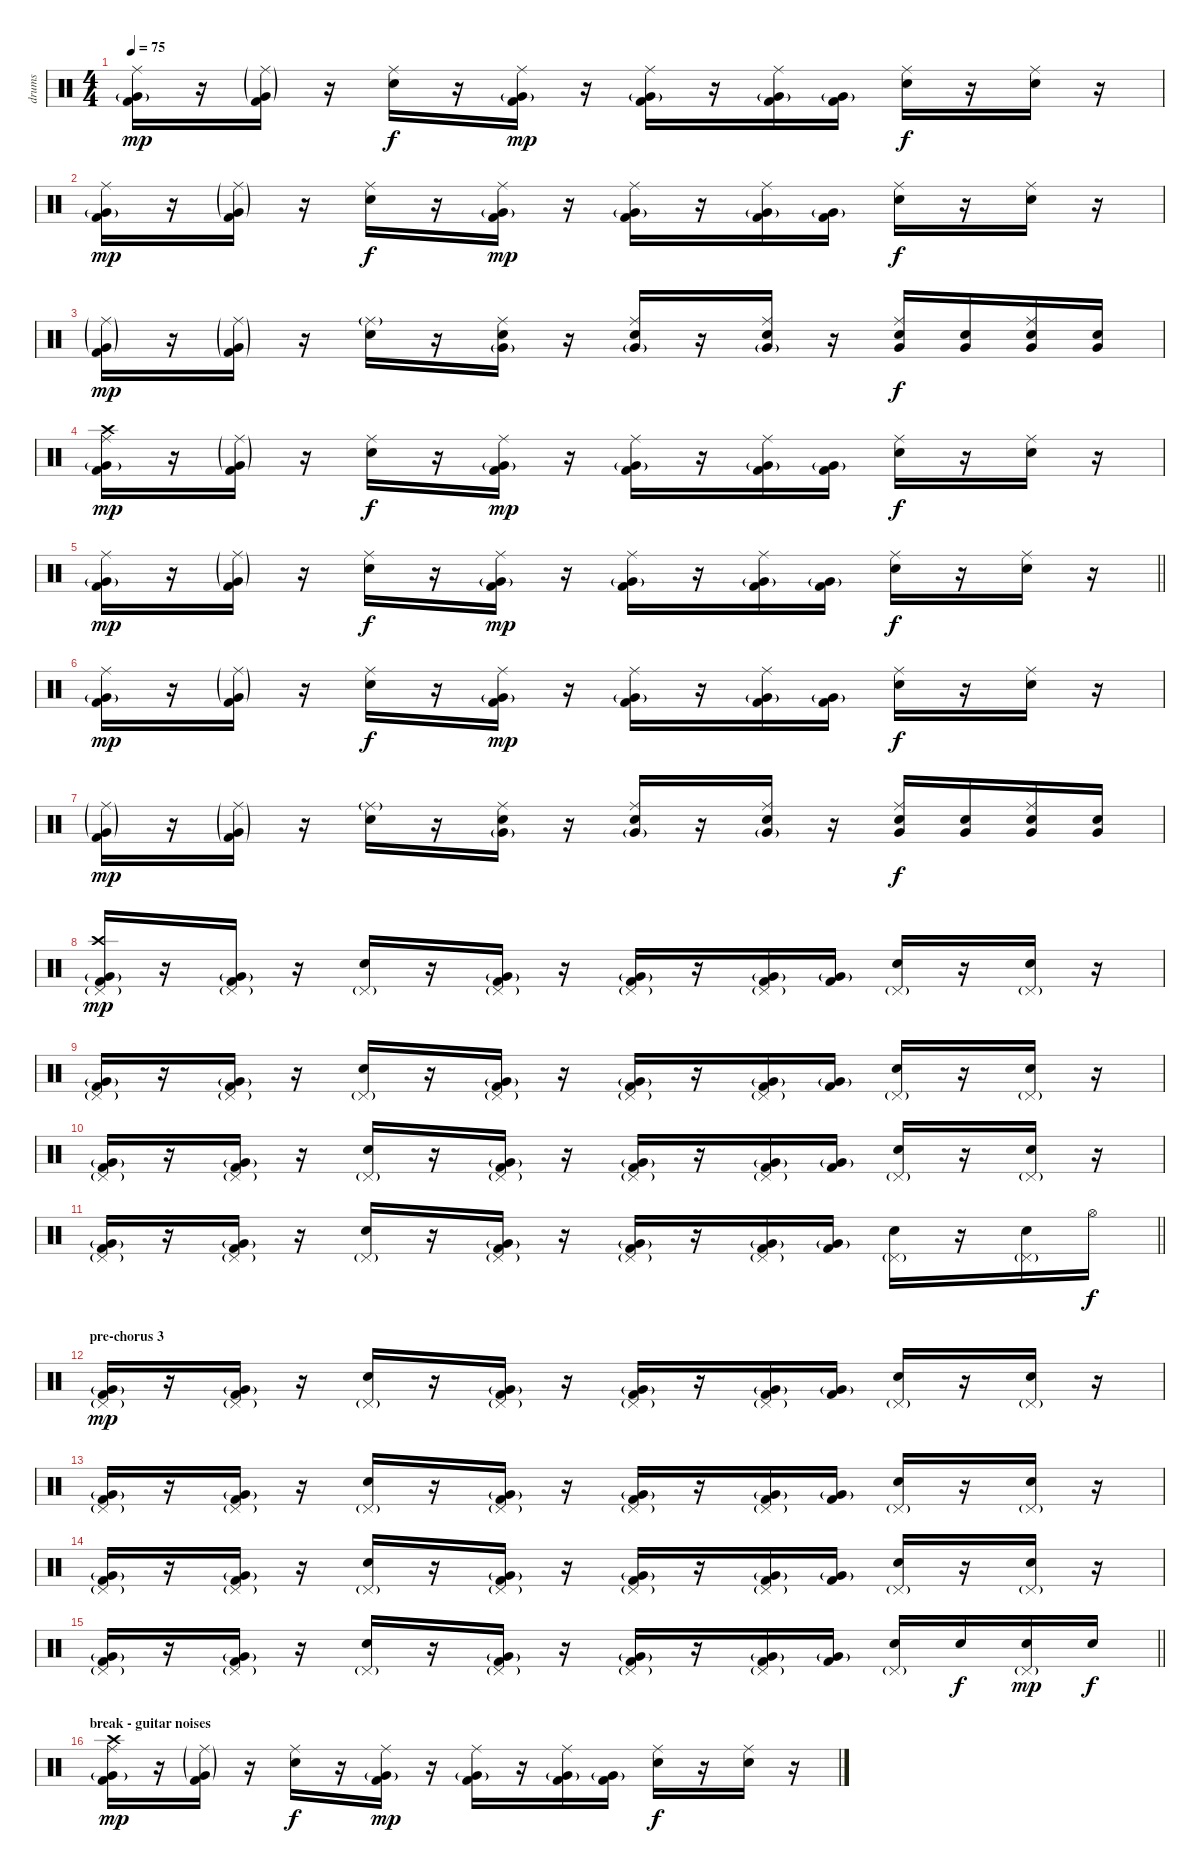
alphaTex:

\track ("drums" "drums") {instrument percussion}
\staff {score}
\articulation defaults
\ts (4 4)
\tempo 75
\clef neutral
\ks c
("Kick (hit) 2" "Very Low Tom (hit)"{g} "Ride (middle)").16{dy mp} r.16 ("Kick (hit) 2" "Very Low Tom (hit)"{g} "Ride (middle)"{g}).16 r.16 ("Electric Snare (hit)" "Ride (middle)").16{dy f} r.16 ("Kick (hit) 2" "Very Low Tom (hit)"{g} "Ride (middle)").16{dy mp} r.16 ("Kick (hit) 2" "Very Low Tom (hit)"{g} "Ride (middle)").16 r.16 ("Kick (hit) 2" "Very Low Tom (hit)"{g} "Ride (middle)").16 ("Kick (hit) 2" "Very Low Tom (hit)"{g}).16 ("Electric Snare (hit)" "Ride (middle)").16{dy f} r.16 ("Electric Snare (hit)" "Ride (middle)").16 r.16 |
("Kick (hit) 2" "Very Low Tom (hit)"{g} "Ride (middle)").16{dy mp} r.16 ("Kick (hit) 2" "Very Low Tom (hit)"{g} "Ride (middle)"{g}).16 r.16 ("Electric Snare (hit)" "Ride (middle)").16{dy f} r.16 ("Kick (hit) 2" "Very Low Tom (hit)"{g} "Ride (middle)").16{dy mp} r.16 ("Kick (hit) 2" "Very Low Tom (hit)"{g} "Ride (middle)").16 r.16 ("Kick (hit) 2" "Very Low Tom (hit)"{g} "Ride (middle)").16 ("Kick (hit) 2" "Very Low Tom (hit)"{g}).16 ("Electric Snare (hit)" "Ride (middle)").16{dy f} r.16 ("Electric Snare (hit)" "Ride (middle)").16 r.16 |
("Kick (hit) 2" "Very Low Tom (hit)"{g} "Ride (middle)"{g}).16{dy mp} r.16 ("Kick (hit) 2"{g} "Very Low Tom (hit)"{g} "Ride (middle)"{g}).16 r.16 ("Electric Snare (hit)" "Ride (middle)"{g}).16 r.16 ("Electric Snare (hit)" "Very Low Tom (hit)"{g} "Ride (middle)").16 r.16 ("Electric Snare (hit)" "Very Low Tom (hit)"{g} "Ride (middle)").16 r.16 ("Electric Snare (hit)" "Very Low Tom (hit)"{g} "Ride (middle)").16 r.16 ("Electric Snare (hit)" "Very Low Tom (hit)" "Ride (middle)").16{dy f} ("Electric Snare (hit)" "Very Low Tom (hit)").16 ("Electric Snare (hit)" "Very Low Tom (hit)" "Ride (middle)").16 ("Electric Snare (hit)" "Very Low Tom (hit)").16 |
("Kick (hit) 2" "Very Low Tom (hit)"{g} "Ride (middle)" "Crash high (hit)").16{dy mp} r.16 ("Kick (hit) 2" "Very Low Tom (hit)"{g} "Ride (middle)"{g}).16 r.16 ("Electric Snare (hit)" "Ride (middle)").16{dy f} r.16 ("Kick (hit) 2" "Very Low Tom (hit)"{g} "Ride (middle)").16{dy mp} r.16 ("Kick (hit) 2" "Very Low Tom (hit)"{g} "Ride (middle)").16 r.16 ("Kick (hit) 2" "Very Low Tom (hit)"{g} "Ride (middle)").16 ("Kick (hit) 2" "Very Low Tom (hit)"{g}).16 ("Electric Snare (hit)" "Ride (middle)").16{dy f} r.16 ("Electric Snare (hit)" "Ride (middle)").16 r.16 |
\barLineRight lightlight
("Kick (hit) 2" "Very Low Tom (hit)"{g} "Ride (middle)").16{dy mp} r.16 ("Kick (hit) 2" "Very Low Tom (hit)"{g} "Ride (middle)"{g}).16 r.16 ("Electric Snare (hit)" "Ride (middle)").16{dy f} r.16 ("Kick (hit) 2" "Very Low Tom (hit)"{g} "Ride (middle)").16{dy mp} r.16 ("Kick (hit) 2" "Very Low Tom (hit)"{g} "Ride (middle)").16 r.16 ("Kick (hit) 2" "Very Low Tom (hit)"{g} "Ride (middle)").16 ("Kick (hit) 2" "Very Low Tom (hit)"{g}).16 ("Electric Snare (hit)" "Ride (middle)").16{dy f} r.16 ("Electric Snare (hit)" "Ride (middle)").16 r.16 |
("Kick (hit) 2" "Very Low Tom (hit)"{g} "Ride (middle)").16{dy mp} r.16 ("Kick (hit) 2" "Very Low Tom (hit)"{g} "Ride (middle)"{g}).16 r.16 ("Electric Snare (hit)" "Ride (middle)").16{dy f} r.16 ("Kick (hit) 2" "Very Low Tom (hit)"{g} "Ride (middle)").16{dy mp} r.16 ("Kick (hit) 2" "Very Low Tom (hit)"{g} "Ride (middle)").16 r.16 ("Kick (hit) 2" "Very Low Tom (hit)"{g} "Ride (middle)").16 ("Kick (hit) 2" "Very Low Tom (hit)"{g}).16 ("Electric Snare (hit)" "Ride (middle)").16{dy f} r.16 ("Electric Snare (hit)" "Ride (middle)").16 r.16 |
("Kick (hit) 2" "Very Low Tom (hit)"{g} "Ride (middle)"{g}).16{dy mp} r.16 ("Kick (hit) 2"{g} "Very Low Tom (hit)"{g} "Ride (middle)"{g}).16 r.16 ("Electric Snare (hit)" "Ride (middle)"{g}).16 r.16 ("Electric Snare (hit)" "Very Low Tom (hit)"{g} "Ride (middle)").16 r.16 ("Electric Snare (hit)" "Very Low Tom (hit)"{g} "Ride (middle)").16 r.16 ("Electric Snare (hit)" "Very Low Tom (hit)"{g} "Ride (middle)").16 r.16 ("Electric Snare (hit)" "Very Low Tom (hit)" "Ride (middle)").16{dy f} ("Electric Snare (hit)" "Very Low Tom (hit)").16 ("Electric Snare (hit)" "Very Low Tom (hit)" "Ride (middle)").16 ("Electric Snare (hit)" "Very Low Tom (hit)").16 |
("Kick (hit) 2" "Very Low Tom (hit)"{g} "Pedal Hi-Hat (hit)"{g} "Crash high (hit)").16{dy mp} r.16 ("Kick (hit) 2" "Very Low Tom (hit)"{g} "Pedal Hi-Hat (hit)"{g}).16 r.16 ("Electric Snare (hit)" "Pedal Hi-Hat (hit)"{g}).16 r.16 ("Kick (hit) 2" "Very Low Tom (hit)"{g} "Pedal Hi-Hat (hit)"{g}).16 r.16 ("Kick (hit) 2" "Very Low Tom (hit)"{g} "Pedal Hi-Hat (hit)"{g}).16 r.16 ("Kick (hit) 2" "Very Low Tom (hit)"{g} "Pedal Hi-Hat (hit)"{g}).16 ("Kick (hit) 2" "Very Low Tom (hit)"{g}).16 ("Electric Snare (hit)" "Pedal Hi-Hat (hit)"{g}).16 r.16 ("Electric Snare (hit)" "Pedal Hi-Hat (hit)"{g}).16 r.16 |
("Kick (hit) 2" "Very Low Tom (hit)"{g} "Pedal Hi-Hat (hit)"{g}).16 r.16 ("Kick (hit) 2" "Very Low Tom (hit)"{g} "Pedal Hi-Hat (hit)"{g}).16 r.16 ("Electric Snare (hit)" "Pedal Hi-Hat (hit)"{g}).16 r.16 ("Kick (hit) 2" "Very Low Tom (hit)"{g} "Pedal Hi-Hat (hit)"{g}).16 r.16 ("Kick (hit) 2" "Very Low Tom (hit)"{g} "Pedal Hi-Hat (hit)"{g}).16 r.16 ("Kick (hit) 2" "Very Low Tom (hit)"{g} "Pedal Hi-Hat (hit)"{g}).16 ("Kick (hit) 2" "Very Low Tom (hit)"{g}).16 ("Electric Snare (hit)" "Pedal Hi-Hat (hit)"{g}).16 r.16 ("Electric Snare (hit)" "Pedal Hi-Hat (hit)"{g}).16 r.16 |
("Kick (hit) 2" "Very Low Tom (hit)"{g} "Pedal Hi-Hat (hit)"{g}).16 r.16 ("Kick (hit) 2" "Very Low Tom (hit)"{g} "Pedal Hi-Hat (hit)"{g}).16 r.16 ("Electric Snare (hit)" "Pedal Hi-Hat (hit)"{g}).16 r.16 ("Kick (hit) 2" "Very Low Tom (hit)"{g} "Pedal Hi-Hat (hit)"{g}).16 r.16 ("Kick (hit) 2" "Very Low Tom (hit)"{g} "Pedal Hi-Hat (hit)"{g}).16 r.16 ("Kick (hit) 2" "Very Low Tom (hit)"{g} "Pedal Hi-Hat (hit)"{g}).16 ("Kick (hit) 2" "Very Low Tom (hit)"{g}).16 ("Electric Snare (hit)" "Pedal Hi-Hat (hit)"{g}).16 r.16 ("Electric Snare (hit)" "Pedal Hi-Hat (hit)"{g}).16 r.16 |
\barLineRight lightlight
("Kick (hit) 2" "Very Low Tom (hit)"{g} "Pedal Hi-Hat (hit)"{g}).16 r.16 ("Kick (hit) 2" "Very Low Tom (hit)"{g} "Pedal Hi-Hat (hit)"{g}).16 r.16 ("Electric Snare (hit)" "Pedal Hi-Hat (hit)"{g}).16 r.16 ("Kick (hit) 2" "Very Low Tom (hit)"{g} "Pedal Hi-Hat (hit)"{g}).16 r.16 ("Kick (hit) 2" "Very Low Tom (hit)"{g} "Pedal Hi-Hat (hit)"{g}).16 r.16 ("Kick (hit) 2" "Very Low Tom (hit)"{g} "Pedal Hi-Hat (hit)"{g}).16 ("Kick (hit) 2" "Very Low Tom (hit)"{g}).16 ("Electric Snare (hit)" "Pedal Hi-Hat (hit)"{g}).16 r.16 ("Electric Snare (hit)" "Pedal Hi-Hat (hit)"{g}).16 "Hi-Hat (open)".16{dy f} |
\section ("" "pre-chorus 3")
("Kick (hit) 2" "Very Low Tom (hit)"{g} "Pedal Hi-Hat (hit)"{g}).16{dy mp} r.16 ("Kick (hit) 2" "Very Low Tom (hit)"{g} "Pedal Hi-Hat (hit)"{g}).16 r.16 ("Electric Snare (hit)" "Pedal Hi-Hat (hit)"{g}).16 r.16 ("Kick (hit) 2" "Very Low Tom (hit)"{g} "Pedal Hi-Hat (hit)"{g}).16 r.16 ("Kick (hit) 2" "Very Low Tom (hit)"{g} "Pedal Hi-Hat (hit)"{g}).16 r.16 ("Kick (hit) 2" "Very Low Tom (hit)"{g} "Pedal Hi-Hat (hit)"{g}).16 ("Kick (hit) 2" "Very Low Tom (hit)"{g}).16 ("Electric Snare (hit)" "Pedal Hi-Hat (hit)"{g}).16 r.16 ("Electric Snare (hit)" "Pedal Hi-Hat (hit)"{g}).16 r.16 |
("Kick (hit) 2" "Very Low Tom (hit)"{g} "Pedal Hi-Hat (hit)"{g}).16 r.16 ("Kick (hit) 2" "Very Low Tom (hit)"{g} "Pedal Hi-Hat (hit)"{g}).16 r.16 ("Electric Snare (hit)" "Pedal Hi-Hat (hit)"{g}).16 r.16 ("Kick (hit) 2" "Very Low Tom (hit)"{g} "Pedal Hi-Hat (hit)"{g}).16 r.16 ("Kick (hit) 2" "Very Low Tom (hit)"{g} "Pedal Hi-Hat (hit)"{g}).16 r.16 ("Kick (hit) 2" "Very Low Tom (hit)"{g} "Pedal Hi-Hat (hit)"{g}).16 ("Kick (hit) 2" "Very Low Tom (hit)"{g}).16 ("Electric Snare (hit)" "Pedal Hi-Hat (hit)"{g}).16 r.16 ("Electric Snare (hit)" "Pedal Hi-Hat (hit)"{g}).16 r.16 |
("Kick (hit) 2" "Very Low Tom (hit)"{g} "Pedal Hi-Hat (hit)"{g}).16 r.16 ("Kick (hit) 2" "Very Low Tom (hit)"{g} "Pedal Hi-Hat (hit)"{g}).16 r.16 ("Electric Snare (hit)" "Pedal Hi-Hat (hit)"{g}).16 r.16 ("Kick (hit) 2" "Very Low Tom (hit)"{g} "Pedal Hi-Hat (hit)"{g}).16 r.16 ("Kick (hit) 2" "Very Low Tom (hit)"{g} "Pedal Hi-Hat (hit)"{g}).16 r.16 ("Kick (hit) 2" "Very Low Tom (hit)"{g} "Pedal Hi-Hat (hit)"{g}).16 ("Kick (hit) 2" "Very Low Tom (hit)"{g}).16 ("Electric Snare (hit)" "Pedal Hi-Hat (hit)"{g}).16 r.16 ("Electric Snare (hit)" "Pedal Hi-Hat (hit)"{g}).16 r.16 |
\barLineRight lightlight
("Kick (hit) 2" "Very Low Tom (hit)"{g} "Pedal Hi-Hat (hit)"{g}).16 r.16 ("Kick (hit) 2" "Very Low Tom (hit)"{g} "Pedal Hi-Hat (hit)"{g}).16 r.16 ("Electric Snare (hit)" "Pedal Hi-Hat (hit)"{g}).16 r.16 ("Kick (hit) 2" "Very Low Tom (hit)"{g} "Pedal Hi-Hat (hit)"{g}).16 r.16 ("Kick (hit) 2" "Very Low Tom (hit)"{g} "Pedal Hi-Hat (hit)"{g}).16 r.16 ("Kick (hit) 2" "Very Low Tom (hit)"{g} "Pedal Hi-Hat (hit)"{g}).16 ("Kick (hit) 2" "Very Low Tom (hit)"{g}).16 ("Electric Snare (hit)" "Pedal Hi-Hat (hit)"{g}).16 "Electric Snare (hit)".16{dy f} ("Electric Snare (hit)" "Pedal Hi-Hat (hit)"{g}).16{dy mp} "Electric Snare (hit)".16{dy f} |
\section ("" "break - guitar noises ")
("Kick (hit) 2" "Very Low Tom (hit)"{g} "Ride (middle)" "Crash high (hit)").16{dy mp} r.16 ("Kick (hit) 2" "Very Low Tom (hit)"{g} "Ride (middle)"{g}).16 r.16 ("Electric Snare (hit)" "Ride (middle)").16{dy f} r.16 ("Kick (hit) 2" "Very Low Tom (hit)"{g} "Ride (middle)").16{dy mp} r.16 ("Kick (hit) 2" "Very Low Tom (hit)"{g} "Ride (middle)").16 r.16 ("Kick (hit) 2" "Very Low Tom (hit)"{g} "Ride (middle)").16 ("Kick (hit) 2" "Very Low Tom (hit)"{g}).16 ("Electric Snare (hit)" "Ride (middle)").16{dy f} r.16 ("Electric Snare (hit)" "Ride (middle)").16 r.16
